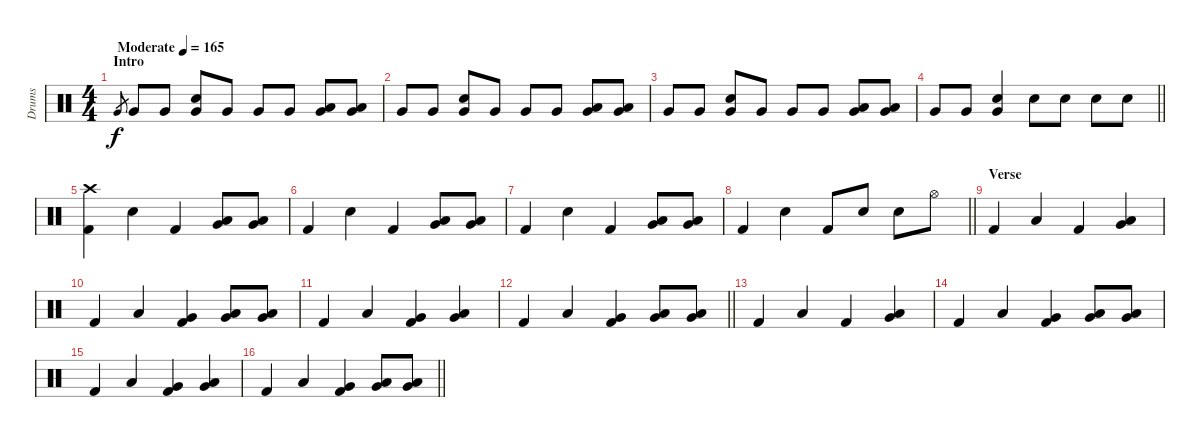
\track ("Drums" "Drums") {instrument percussion}
\staff {score}
\articulation defaults
\ts (4 4)
\section ("" "Intro")
\tempo (165 "Moderate")
\clef neutral
\ks c "Very Low Tom (hit)".8{gr dy f} "Very Low Tom (hit)".8 "Very Low Tom (hit)".8
("Snare (hit) 2" "Very Low Tom (hit)").8 "Very Low Tom (hit)".8 "Very Low Tom (hit)".8 "Very Low Tom (hit)".8 ("Low Tom (hit)" "Very Low Tom (hit)").8 ("Low Tom (hit)" "Very Low Tom (hit)").8 |
"Very Low Tom (hit)".8 "Very Low Tom (hit)".8 ("Snare (hit) 2" "Very Low Tom (hit)").8 "Very Low Tom (hit)".8 "Very Low Tom (hit)".8 "Very Low Tom (hit)".8 ("Low Tom (hit)" "Very Low Tom (hit)").8 ("Low Tom (hit)" "Very Low Tom (hit)").8 |
"Very Low Tom (hit)".8 "Very Low Tom (hit)".8 ("Snare (hit) 2" "Very Low Tom (hit)").8 "Very Low Tom (hit)".8 "Very Low Tom (hit)".8 "Very Low Tom (hit)".8 ("Low Tom (hit)" "Very Low Tom (hit)").8 ("Low Tom (hit)" "Very Low Tom (hit)").8 |
\barLineRight lightlight "Very Low Tom (hit)".8 "Very Low Tom (hit)".8
("Snare (hit) 2" "Very Low Tom (hit)").4 "Snare (hit) 2".8 "Snare (hit) 2".8 "Snare (hit) 2".8 "Snare (hit) 2".8 |
("Crash high (hit)" "Kick (hit) 2").4 "Snare (hit) 2".4 "Kick (hit) 2".4 ("Low Tom (hit)" "Very Low Tom (hit)").8 ("Low Tom (hit)" "Very Low Tom (hit)").8 |
"Kick (hit) 2".4 "Snare (hit) 2".4 "Kick (hit) 2".4 ("Low Tom (hit)" "Very Low Tom (hit)").8 ("Low Tom (hit)" "Very Low Tom (hit)").8 |
"Kick (hit) 2".4 "Snare (hit) 2".4 "Kick (hit) 2".4 ("Low Tom (hit)" "Very Low Tom (hit)").8 ("Low Tom (hit)" "Very Low Tom (hit)").8 |
\barLineRight lightlight "Kick (hit) 2".4 "Snare (hit) 2".4 "Kick (hit) 2".8 "Snare (hit) 2".8 "Snare (hit) 2".8 "Hi-Hat (open)".8
|
\section ("" "Verse")
"Kick (hit) 2".4 "Low Tom (hit)".4 "Kick (hit) 2".4 ("Low Tom (hit)" "Very Low Tom (hit)").4 |
"Kick (hit) 2".4 "Low Tom (hit)".4 ("Very Low Tom (hit)" "Kick (hit) 2").4 ("Low Tom (hit)" "Very Low Tom (hit)").8 ("Low Tom (hit)" "Very Low Tom (hit)").8 |
"Kick (hit) 2".4 "Low Tom (hit)".4 ("Very Low Tom (hit)" "Kick (hit) 2").4 ("Low Tom (hit)" "Very Low Tom (hit)").4 |
\barLineRight lightlight "Kick (hit) 2".4 "Low Tom (hit)".4
("Very Low Tom (hit)" "Kick (hit) 2").4 ("Low Tom (hit)" "Very Low Tom (hit)").8 ("Low Tom (hit)" "Very Low Tom (hit)").8 |
"Kick (hit) 2".4 "Low Tom (hit)".4 "Kick (hit) 2".4 ("Low Tom (hit)" "Very Low Tom (hit)").4 |
"Kick (hit) 2".4 "Low Tom (hit)".4 ("Very Low Tom (hit)" "Kick (hit) 2").4 ("Low Tom (hit)" "Very Low Tom (hit)").8 ("Low Tom (hit)" "Very Low Tom (hit)").8 |
"Kick (hit) 2".4 "Low Tom (hit)".4 ("Very Low Tom (hit)" "Kick (hit) 2").4 ("Low Tom (hit)" "Very Low Tom (hit)").4 |
\barLineRight lightlight "Kick (hit) 2".4 "Low Tom (hit)".4
("Very Low Tom (hit)" "Kick (hit) 2").4 ("Low Tom (hit)" "Very Low Tom (hit)").8 ("Low Tom (hit)" "Very Low Tom (hit)").8
